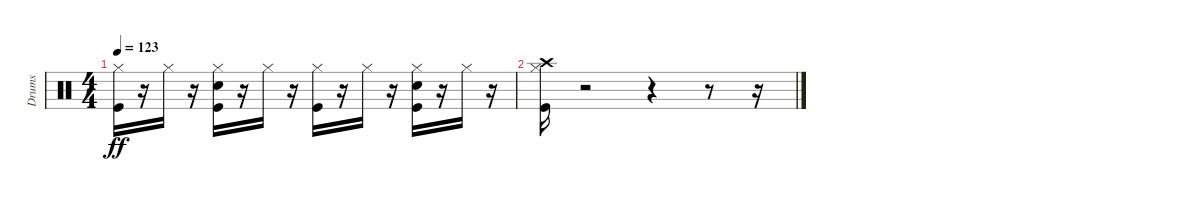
\track ("Drums" "Drums") {instrument percussion}
\staff {score}
\articulation defaults
\ts (4 4)
\tempo 123
\clef neutral
\ks c
("Kick (hit)" "Hi-Hat (closed)").16{dy ff} r.16 "Hi-Hat (closed)".16 r.16 ("Kick (hit)" "Hi-Hat (closed)" "Snare (hit) 2").16 r.16 "Hi-Hat (closed)".16 r.16 ("Kick (hit)" "Hi-Hat (closed)").16 r.16 "Hi-Hat (closed)".16 r.16 ("Kick (hit)" "Snare (hit) 2" "Hi-Hat (closed)").16 r.16 "Hi-Hat (closed)".16 r.16 |
("Crash high (hit)" "Kick (hit)" "Hi-Hat (closed)").16 r.2 r.4 r.8 r.16
